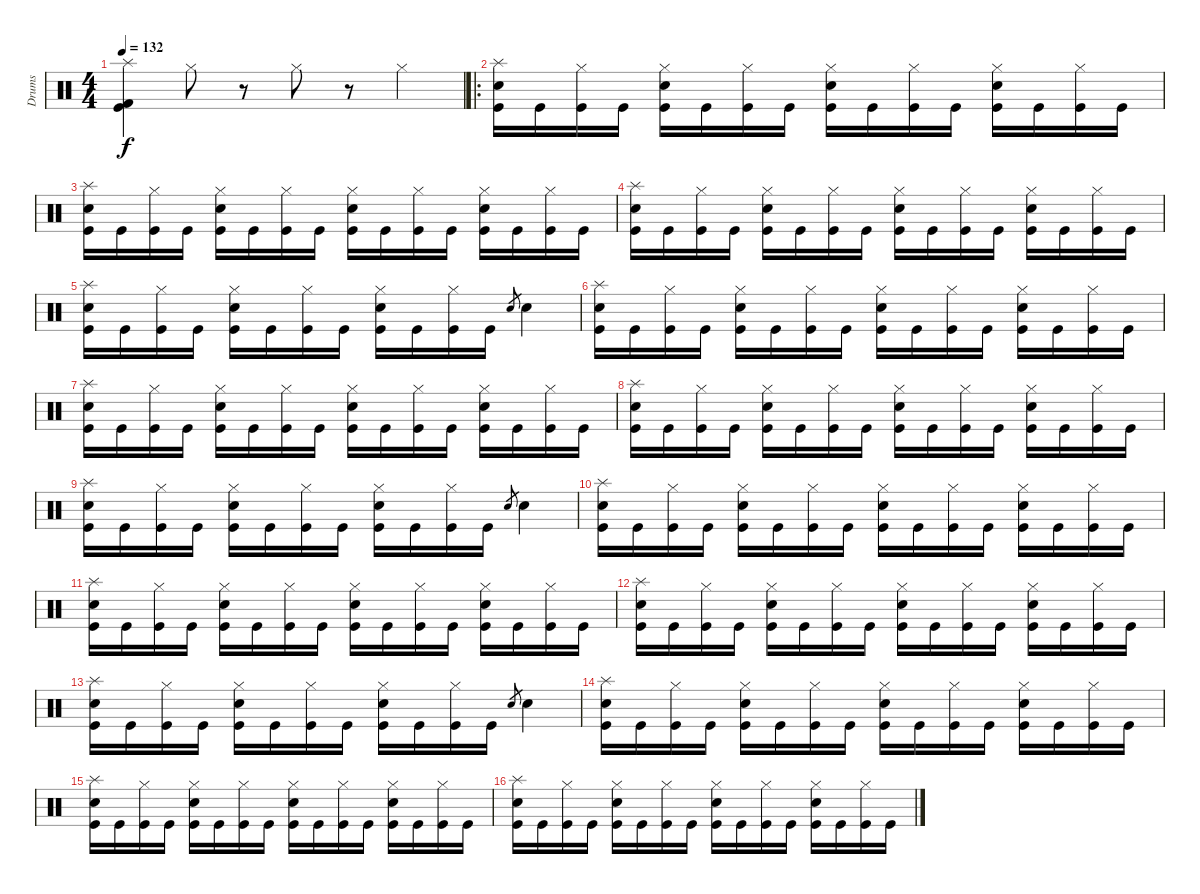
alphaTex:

\track ("Drums" "Drums") {instrument percussion}
\staff {score}
\articulation defaults
\ts (4 4)
\tempo 132
\clef neutral
\ks c
("Splash (hit)" "Kick (hit) 2" "Kick (hit)").4{dy f} "Hi-Hat (closed)".8 r.8 "Hi-Hat (closed)".8 r.8 "Hi-Hat (closed)".4 |
\ro
("Splash (hit)" "Electric Snare (hit)" "Kick (hit)").16 "Kick (hit)".16 ("Hi-Hat (closed)" "Kick (hit)").16 "Kick (hit)".16 ("Hi-Hat (closed)" "Electric Snare (hit)" "Kick (hit)").16 "Kick (hit)".16 ("Hi-Hat (closed)" "Kick (hit)").16 "Kick (hit)".16 ("Hi-Hat (closed)" "Electric Snare (hit)" "Kick (hit)").16 "Kick (hit)".16 ("Hi-Hat (closed)" "Kick (hit)").16 "Kick (hit)".16 ("Hi-Hat (closed)" "Electric Snare (hit)" "Kick (hit)").16 "Kick (hit)".16 ("Hi-Hat (closed)" "Kick (hit)").16 "Kick (hit)".16 |
("Splash (hit)" "Electric Snare (hit)" "Kick (hit)").16 "Kick (hit)".16 ("Hi-Hat (closed)" "Kick (hit)").16 "Kick (hit)".16 ("Hi-Hat (closed)" "Electric Snare (hit)" "Kick (hit)").16 "Kick (hit)".16 ("Hi-Hat (closed)" "Kick (hit)").16 "Kick (hit)".16 ("Hi-Hat (closed)" "Electric Snare (hit)" "Kick (hit)").16 "Kick (hit)".16 ("Hi-Hat (closed)" "Kick (hit)").16 "Kick (hit)".16 ("Hi-Hat (closed)" "Electric Snare (hit)" "Kick (hit)").16 "Kick (hit)".16 ("Hi-Hat (closed)" "Kick (hit)").16 "Kick (hit)".16 |
("Splash (hit)" "Electric Snare (hit)" "Kick (hit)").16 "Kick (hit)".16 ("Hi-Hat (closed)" "Kick (hit)").16 "Kick (hit)".16 ("Hi-Hat (closed)" "Electric Snare (hit)" "Kick (hit)").16 "Kick (hit)".16 ("Hi-Hat (closed)" "Kick (hit)").16 "Kick (hit)".16 ("Hi-Hat (closed)" "Electric Snare (hit)" "Kick (hit)").16 "Kick (hit)".16 ("Hi-Hat (closed)" "Kick (hit)").16 "Kick (hit)".16 ("Hi-Hat (closed)" "Electric Snare (hit)" "Kick (hit)").16 "Kick (hit)".16 ("Hi-Hat (closed)" "Kick (hit)").16 "Kick (hit)".16 |
("Splash (hit)" "Electric Snare (hit)" "Kick (hit)").16 "Kick (hit)".16 ("Hi-Hat (closed)" "Kick (hit)").16 "Kick (hit)".16 ("Hi-Hat (closed)" "Electric Snare (hit)" "Kick (hit)").16 "Kick (hit)".16 ("Hi-Hat (closed)" "Kick (hit)").16 "Kick (hit)".16 ("Hi-Hat (closed)" "Electric Snare (hit)" "Kick (hit)").16 "Kick (hit)".16 ("Hi-Hat (closed)" "Kick (hit)").16 "Kick (hit)".16 "Electric Snare (hit)".8{gr} "Electric Snare (hit)".4 |
("Splash (hit)" "Electric Snare (hit)" "Kick (hit)").16 "Kick (hit)".16 ("Hi-Hat (closed)" "Kick (hit)").16 "Kick (hit)".16 ("Hi-Hat (closed)" "Electric Snare (hit)" "Kick (hit)").16 "Kick (hit)".16 ("Hi-Hat (closed)" "Kick (hit)").16 "Kick (hit)".16 ("Hi-Hat (closed)" "Electric Snare (hit)" "Kick (hit)").16 "Kick (hit)".16 ("Hi-Hat (closed)" "Kick (hit)").16 "Kick (hit)".16 ("Hi-Hat (closed)" "Electric Snare (hit)" "Kick (hit)").16 "Kick (hit)".16 ("Hi-Hat (closed)" "Kick (hit)").16 "Kick (hit)".16 |
("Splash (hit)" "Electric Snare (hit)" "Kick (hit)").16 "Kick (hit)".16 ("Hi-Hat (closed)" "Kick (hit)").16 "Kick (hit)".16 ("Hi-Hat (closed)" "Electric Snare (hit)" "Kick (hit)").16 "Kick (hit)".16 ("Hi-Hat (closed)" "Kick (hit)").16 "Kick (hit)".16 ("Hi-Hat (closed)" "Electric Snare (hit)" "Kick (hit)").16 "Kick (hit)".16 ("Hi-Hat (closed)" "Kick (hit)").16 "Kick (hit)".16 ("Hi-Hat (closed)" "Electric Snare (hit)" "Kick (hit)").16 "Kick (hit)".16 ("Hi-Hat (closed)" "Kick (hit)").16 "Kick (hit)".16 |
("Splash (hit)" "Electric Snare (hit)" "Kick (hit)").16 "Kick (hit)".16 ("Hi-Hat (closed)" "Kick (hit)").16 "Kick (hit)".16 ("Hi-Hat (closed)" "Electric Snare (hit)" "Kick (hit)").16 "Kick (hit)".16 ("Hi-Hat (closed)" "Kick (hit)").16 "Kick (hit)".16 ("Hi-Hat (closed)" "Electric Snare (hit)" "Kick (hit)").16 "Kick (hit)".16 ("Hi-Hat (closed)" "Kick (hit)").16 "Kick (hit)".16 ("Hi-Hat (closed)" "Electric Snare (hit)" "Kick (hit)").16 "Kick (hit)".16 ("Hi-Hat (closed)" "Kick (hit)").16 "Kick (hit)".16 |
("Splash (hit)" "Electric Snare (hit)" "Kick (hit)").16 "Kick (hit)".16 ("Hi-Hat (closed)" "Kick (hit)").16 "Kick (hit)".16 ("Hi-Hat (closed)" "Electric Snare (hit)" "Kick (hit)").16 "Kick (hit)".16 ("Hi-Hat (closed)" "Kick (hit)").16 "Kick (hit)".16 ("Hi-Hat (closed)" "Electric Snare (hit)" "Kick (hit)").16 "Kick (hit)".16 ("Hi-Hat (closed)" "Kick (hit)").16 "Kick (hit)".16 "Electric Snare (hit)".8{gr} "Electric Snare (hit)".4 |
("Splash (hit)" "Electric Snare (hit)" "Kick (hit)").16 "Kick (hit)".16 ("Hi-Hat (closed)" "Kick (hit)").16 "Kick (hit)".16 ("Hi-Hat (closed)" "Electric Snare (hit)" "Kick (hit)").16 "Kick (hit)".16 ("Hi-Hat (closed)" "Kick (hit)").16 "Kick (hit)".16 ("Hi-Hat (closed)" "Electric Snare (hit)" "Kick (hit)").16 "Kick (hit)".16 ("Hi-Hat (closed)" "Kick (hit)").16 "Kick (hit)".16 ("Hi-Hat (closed)" "Electric Snare (hit)" "Kick (hit)").16 "Kick (hit)".16 ("Hi-Hat (closed)" "Kick (hit)").16 "Kick (hit)".16 |
("Splash (hit)" "Electric Snare (hit)" "Kick (hit)").16 "Kick (hit)".16 ("Hi-Hat (closed)" "Kick (hit)").16 "Kick (hit)".16 ("Hi-Hat (closed)" "Electric Snare (hit)" "Kick (hit)").16 "Kick (hit)".16 ("Hi-Hat (closed)" "Kick (hit)").16 "Kick (hit)".16 ("Hi-Hat (closed)" "Electric Snare (hit)" "Kick (hit)").16 "Kick (hit)".16 ("Hi-Hat (closed)" "Kick (hit)").16 "Kick (hit)".16 ("Hi-Hat (closed)" "Electric Snare (hit)" "Kick (hit)").16 "Kick (hit)".16 ("Hi-Hat (closed)" "Kick (hit)").16 "Kick (hit)".16 |
("Splash (hit)" "Electric Snare (hit)" "Kick (hit)").16 "Kick (hit)".16 ("Hi-Hat (closed)" "Kick (hit)").16 "Kick (hit)".16 ("Hi-Hat (closed)" "Electric Snare (hit)" "Kick (hit)").16 "Kick (hit)".16 ("Hi-Hat (closed)" "Kick (hit)").16 "Kick (hit)".16 ("Hi-Hat (closed)" "Electric Snare (hit)" "Kick (hit)").16 "Kick (hit)".16 ("Hi-Hat (closed)" "Kick (hit)").16 "Kick (hit)".16 ("Hi-Hat (closed)" "Electric Snare (hit)" "Kick (hit)").16 "Kick (hit)".16 ("Hi-Hat (closed)" "Kick (hit)").16 "Kick (hit)".16 |
("Splash (hit)" "Electric Snare (hit)" "Kick (hit)").16 "Kick (hit)".16 ("Hi-Hat (closed)" "Kick (hit)").16 "Kick (hit)".16 ("Hi-Hat (closed)" "Electric Snare (hit)" "Kick (hit)").16 "Kick (hit)".16 ("Hi-Hat (closed)" "Kick (hit)").16 "Kick (hit)".16 ("Hi-Hat (closed)" "Electric Snare (hit)" "Kick (hit)").16 "Kick (hit)".16 ("Hi-Hat (closed)" "Kick (hit)").16 "Kick (hit)".16 "Electric Snare (hit)".8{gr} "Electric Snare (hit)".4 |
("Splash (hit)" "Electric Snare (hit)" "Kick (hit)").16 "Kick (hit)".16 ("Hi-Hat (closed)" "Kick (hit)").16 "Kick (hit)".16 ("Hi-Hat (closed)" "Electric Snare (hit)" "Kick (hit)").16 "Kick (hit)".16 ("Hi-Hat (closed)" "Kick (hit)").16 "Kick (hit)".16 ("Hi-Hat (closed)" "Electric Snare (hit)" "Kick (hit)").16 "Kick (hit)".16 ("Hi-Hat (closed)" "Kick (hit)").16 "Kick (hit)".16 ("Hi-Hat (closed)" "Electric Snare (hit)" "Kick (hit)").16 "Kick (hit)".16 ("Hi-Hat (closed)" "Kick (hit)").16 "Kick (hit)".16 |
("Splash (hit)" "Electric Snare (hit)" "Kick (hit)").16 "Kick (hit)".16 ("Hi-Hat (closed)" "Kick (hit)").16 "Kick (hit)".16 ("Hi-Hat (closed)" "Electric Snare (hit)" "Kick (hit)").16 "Kick (hit)".16 ("Hi-Hat (closed)" "Kick (hit)").16 "Kick (hit)".16 ("Hi-Hat (closed)" "Electric Snare (hit)" "Kick (hit)").16 "Kick (hit)".16 ("Hi-Hat (closed)" "Kick (hit)").16 "Kick (hit)".16 ("Hi-Hat (closed)" "Electric Snare (hit)" "Kick (hit)").16 "Kick (hit)".16 ("Hi-Hat (closed)" "Kick (hit)").16 "Kick (hit)".16 |
("Splash (hit)" "Electric Snare (hit)" "Kick (hit)").16 "Kick (hit)".16 ("Hi-Hat (closed)" "Kick (hit)").16 "Kick (hit)".16 ("Hi-Hat (closed)" "Electric Snare (hit)" "Kick (hit)").16 "Kick (hit)".16 ("Hi-Hat (closed)" "Kick (hit)").16 "Kick (hit)".16 ("Hi-Hat (closed)" "Electric Snare (hit)" "Kick (hit)").16 "Kick (hit)".16 ("Hi-Hat (closed)" "Kick (hit)").16 "Kick (hit)".16 ("Hi-Hat (closed)" "Electric Snare (hit)" "Kick (hit)").16 "Kick (hit)".16 ("Hi-Hat (closed)" "Kick (hit)").16 "Kick (hit)".16
